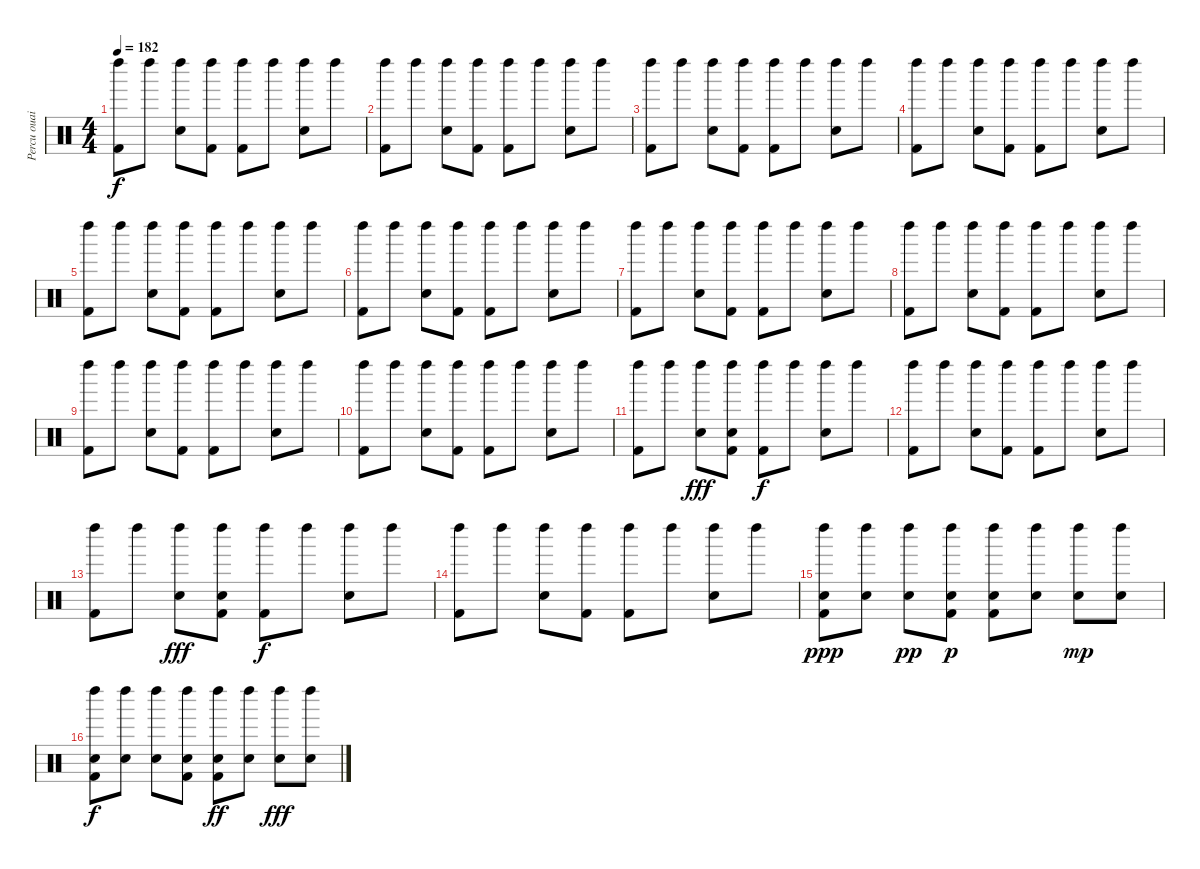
\track ("Percu ouaih !" "Percu ouai") {instrument percussion}
\staff {score}
\articulation defaults
\ts (4 4)
\tempo 182
\clef neutral
\ks c
("Left Maraca (hit)" "Kick (hit) 2").8{dy f} "Left Maraca (hit)".8 ("Left Maraca (hit)" "Snare (hit) 2").8 ("Left Maraca (hit)" "Kick (hit) 2").8 ("Left Maraca (hit)" "Kick (hit) 2").8 "Left Maraca (hit)".8 ("Left Maraca (hit)" "Electric Snare (hit)").8 "Left Maraca (hit)".8 |
("Left Maraca (hit)" "Kick (hit) 2").8 "Left Maraca (hit)".8 ("Left Maraca (hit)" "Snare (hit) 2").8 ("Left Maraca (hit)" "Kick (hit) 2").8 ("Left Maraca (hit)" "Kick (hit) 2").8 "Left Maraca (hit)".8 ("Left Maraca (hit)" "Electric Snare (hit)").8 "Left Maraca (hit)".8 |
("Left Maraca (hit)" "Kick (hit) 2").8 "Left Maraca (hit)".8 ("Left Maraca (hit)" "Snare (hit) 2").8 ("Left Maraca (hit)" "Kick (hit) 2").8 ("Left Maraca (hit)" "Kick (hit) 2").8 "Left Maraca (hit)".8 ("Left Maraca (hit)" "Electric Snare (hit)").8 "Left Maraca (hit)".8 |
("Left Maraca (hit)" "Kick (hit) 2").8 "Left Maraca (hit)".8 ("Left Maraca (hit)" "Snare (hit) 2").8 ("Left Maraca (hit)" "Kick (hit) 2").8 ("Left Maraca (hit)" "Kick (hit) 2").8 "Left Maraca (hit)".8 ("Left Maraca (hit)" "Electric Snare (hit)").8 "Left Maraca (hit)".8 |
("Left Maraca (hit)" "Kick (hit) 2").8 "Left Maraca (hit)".8 ("Left Maraca (hit)" "Snare (hit) 2").8 ("Left Maraca (hit)" "Kick (hit) 2").8 ("Left Maraca (hit)" "Kick (hit) 2").8 "Left Maraca (hit)".8 ("Left Maraca (hit)" "Electric Snare (hit)").8 "Left Maraca (hit)".8 |
("Left Maraca (hit)" "Kick (hit) 2").8 "Left Maraca (hit)".8 ("Left Maraca (hit)" "Snare (hit) 2").8 ("Left Maraca (hit)" "Kick (hit) 2").8 ("Left Maraca (hit)" "Kick (hit) 2").8 "Left Maraca (hit)".8 ("Left Maraca (hit)" "Electric Snare (hit)").8 "Left Maraca (hit)".8 |
("Left Maraca (hit)" "Kick (hit) 2").8 "Left Maraca (hit)".8 ("Left Maraca (hit)" "Snare (hit) 2").8 ("Left Maraca (hit)" "Kick (hit) 2").8 ("Left Maraca (hit)" "Kick (hit) 2").8 "Left Maraca (hit)".8 ("Left Maraca (hit)" "Electric Snare (hit)").8 "Left Maraca (hit)".8 |
("Left Maraca (hit)" "Kick (hit) 2").8 "Left Maraca (hit)".8 ("Left Maraca (hit)" "Snare (hit) 2").8 ("Left Maraca (hit)" "Kick (hit) 2").8 ("Left Maraca (hit)" "Kick (hit) 2").8 "Left Maraca (hit)".8 ("Left Maraca (hit)" "Electric Snare (hit)").8 "Left Maraca (hit)".8 |
("Left Maraca (hit)" "Kick (hit) 2").8 "Left Maraca (hit)".8 ("Left Maraca (hit)" "Snare (hit) 2").8 ("Left Maraca (hit)" "Kick (hit) 2").8 ("Left Maraca (hit)" "Kick (hit) 2").8 "Left Maraca (hit)".8 ("Left Maraca (hit)" "Electric Snare (hit)").8 "Left Maraca (hit)".8 |
("Left Maraca (hit)" "Kick (hit) 2").8 "Left Maraca (hit)".8 ("Left Maraca (hit)" "Snare (hit) 2").8 ("Left Maraca (hit)" "Kick (hit) 2").8 ("Left Maraca (hit)" "Kick (hit) 2").8 "Left Maraca (hit)".8 ("Left Maraca (hit)" "Electric Snare (hit)").8 "Left Maraca (hit)".8 |
("Left Maraca (hit)" "Kick (hit) 2").8 "Left Maraca (hit)".8 ("Left Maraca (hit)" "Hand Clap (hit)").8{dy fff} ("Left Maraca (hit)" "Hand Clap (hit)" "Kick (hit) 2").8 ("Left Maraca (hit)" "Kick (hit) 2").8{dy f} "Left Maraca (hit)".8 ("Left Maraca (hit)" "Electric Snare (hit)").8 "Left Maraca (hit)".8 |
("Left Maraca (hit)" "Kick (hit) 2").8 "Left Maraca (hit)".8 ("Left Maraca (hit)" "Snare (hit) 2").8 ("Left Maraca (hit)" "Kick (hit) 2").8 ("Left Maraca (hit)" "Kick (hit) 2").8 "Left Maraca (hit)".8 ("Left Maraca (hit)" "Electric Snare (hit)").8 "Left Maraca (hit)".8 |
("Left Maraca (hit)" "Kick (hit) 2").8 "Left Maraca (hit)".8 ("Left Maraca (hit)" "Hand Clap (hit)").8{dy fff} ("Left Maraca (hit)" "Hand Clap (hit)" "Kick (hit) 2").8 ("Left Maraca (hit)" "Kick (hit) 2").8{dy f} "Left Maraca (hit)".8 ("Left Maraca (hit)" "Electric Snare (hit)").8 "Left Maraca (hit)".8 |
("Left Maraca (hit)" "Kick (hit) 2").8 "Left Maraca (hit)".8 ("Left Maraca (hit)" "Snare (hit) 2").8 ("Left Maraca (hit)" "Kick (hit) 2").8 ("Left Maraca (hit)" "Kick (hit) 2").8 "Left Maraca (hit)".8 ("Left Maraca (hit)" "Electric Snare (hit)").8 "Left Maraca (hit)".8 |
("Left Maraca (hit)" "Electric Snare (hit)" "Kick (hit) 2").8{dy ppp} ("Left Maraca (hit)" "Electric Snare (hit)").8 ("Left Maraca (hit)" "Electric Snare (hit)").8{dy pp} ("Left Maraca (hit)" "Electric Snare (hit)" "Kick (hit) 2").8{dy p} ("Left Maraca (hit)" "Electric Snare (hit)" "Kick (hit) 2").8 ("Left Maraca (hit)" "Electric Snare (hit)").8 ("Left Maraca (hit)" "Electric Snare (hit)").8{dy mp} ("Left Maraca (hit)" "Electric Snare (hit)").8 |
("Left Maraca (hit)" "Electric Snare (hit)" "Kick (hit) 2").8{dy f} ("Left Maraca (hit)" "Electric Snare (hit)").8 ("Left Maraca (hit)" "Electric Snare (hit)").8 ("Left Maraca (hit)" "Electric Snare (hit)" "Kick (hit) 2").8 ("Left Maraca (hit)" "Electric Snare (hit)" "Kick (hit) 2").8{dy ff} ("Left Maraca (hit)" "Electric Snare (hit)").8 ("Left Maraca (hit)" "Electric Snare (hit)").8{dy fff} ("Left Maraca (hit)" "Electric Snare (hit)").8
